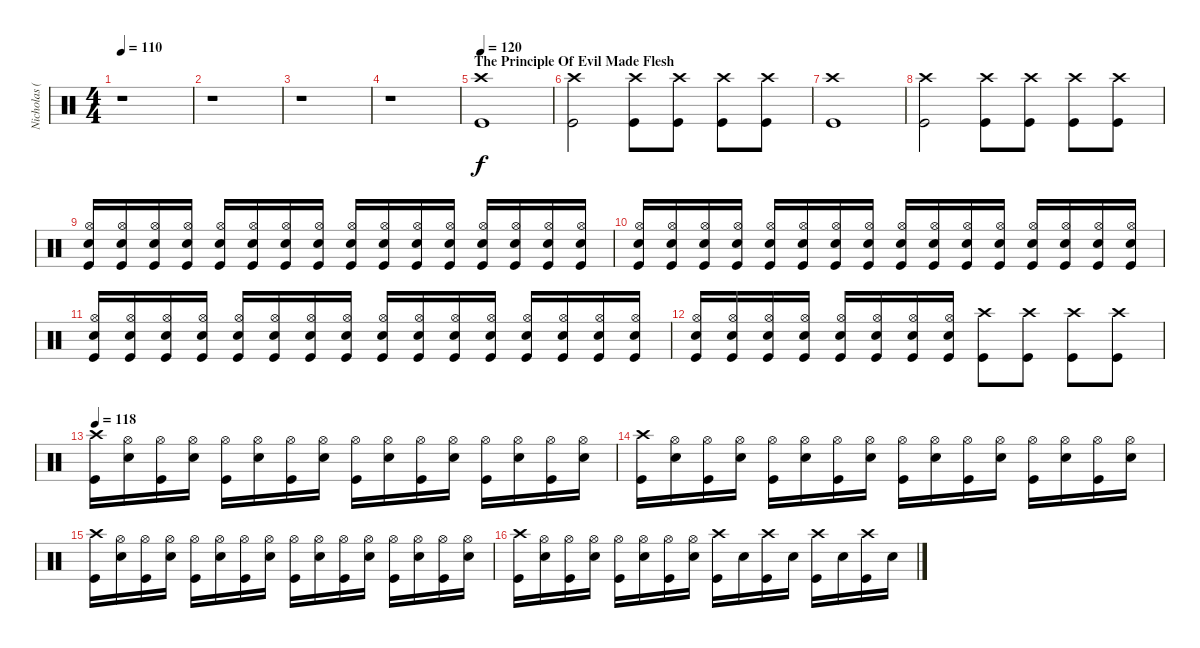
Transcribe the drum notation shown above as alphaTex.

\track ("Nicholas (Drums)" "Nicholas (") {instrument percussion}
\staff {score}
\articulation defaults
\ts (4 4)
\tempo 110
\clef neutral
\ks c
r.1{dy f} |
r.1 |
r.1 |
r.1 |
\section ("" "The Principle Of Evil Made Flesh")
\tempo 120
("Crash high (hit)" "Kick (hit)").1 |
("Crash high (hit)" "Kick (hit)").2 ("Crash high (hit)" "Kick (hit)").8 ("Crash high (hit)" "Kick (hit)").8 ("Crash high (hit)" "Kick (hit)").8 ("Crash high (hit)" "Kick (hit)").8 |
("Crash high (hit)" "Kick (hit)").1 |
("Crash high (hit)" "Kick (hit)").2 ("Crash high (hit)" "Kick (hit)").8 ("Crash high (hit)" "Kick (hit)").8 ("Crash high (hit)" "Kick (hit)").8 ("Crash high (hit)" "Kick (hit)").8 |
("Hi-Hat (open)" "Electric Snare (hit)" "Kick (hit)").16 ("Hi-Hat (open)" "Electric Snare (hit)" "Kick (hit)").16 ("Hi-Hat (open)" "Electric Snare (hit)" "Kick (hit)").16 ("Hi-Hat (open)" "Electric Snare (hit)" "Kick (hit)").16 ("Hi-Hat (open)" "Electric Snare (hit)" "Kick (hit)").16 ("Hi-Hat (open)" "Electric Snare (hit)" "Kick (hit)").16 ("Hi-Hat (open)" "Electric Snare (hit)" "Kick (hit)").16 ("Hi-Hat (open)" "Electric Snare (hit)" "Kick (hit)").16 ("Hi-Hat (open)" "Electric Snare (hit)" "Kick (hit)").16 ("Hi-Hat (open)" "Electric Snare (hit)" "Kick (hit)").16 ("Hi-Hat (open)" "Electric Snare (hit)" "Kick (hit)").16 ("Hi-Hat (open)" "Electric Snare (hit)" "Kick (hit)").16 ("Hi-Hat (open)" "Electric Snare (hit)" "Kick (hit)").16 ("Hi-Hat (open)" "Electric Snare (hit)" "Kick (hit)").16 ("Hi-Hat (open)" "Electric Snare (hit)" "Kick (hit)").16 ("Hi-Hat (open)" "Electric Snare (hit)" "Kick (hit)").16 |
("Hi-Hat (open)" "Electric Snare (hit)" "Kick (hit)").16 ("Hi-Hat (open)" "Electric Snare (hit)" "Kick (hit)").16 ("Hi-Hat (open)" "Electric Snare (hit)" "Kick (hit)").16 ("Hi-Hat (open)" "Electric Snare (hit)" "Kick (hit)").16 ("Hi-Hat (open)" "Electric Snare (hit)" "Kick (hit)").16 ("Hi-Hat (open)" "Electric Snare (hit)" "Kick (hit)").16 ("Hi-Hat (open)" "Electric Snare (hit)" "Kick (hit)").16 ("Hi-Hat (open)" "Electric Snare (hit)" "Kick (hit)").16 ("Hi-Hat (open)" "Electric Snare (hit)" "Kick (hit)").16 ("Hi-Hat (open)" "Electric Snare (hit)" "Kick (hit)").16 ("Hi-Hat (open)" "Electric Snare (hit)" "Kick (hit)").16 ("Hi-Hat (open)" "Electric Snare (hit)" "Kick (hit)").16 ("Hi-Hat (open)" "Electric Snare (hit)" "Kick (hit)").16 ("Hi-Hat (open)" "Electric Snare (hit)" "Kick (hit)").16 ("Hi-Hat (open)" "Electric Snare (hit)" "Kick (hit)").16 ("Hi-Hat (open)" "Electric Snare (hit)" "Kick (hit)").16 |
("Hi-Hat (open)" "Electric Snare (hit)" "Kick (hit)").16 ("Hi-Hat (open)" "Electric Snare (hit)" "Kick (hit)").16 ("Hi-Hat (open)" "Electric Snare (hit)" "Kick (hit)").16 ("Hi-Hat (open)" "Electric Snare (hit)" "Kick (hit)").16 ("Hi-Hat (open)" "Electric Snare (hit)" "Kick (hit)").16 ("Hi-Hat (open)" "Electric Snare (hit)" "Kick (hit)").16 ("Hi-Hat (open)" "Electric Snare (hit)" "Kick (hit)").16 ("Hi-Hat (open)" "Electric Snare (hit)" "Kick (hit)").16 ("Hi-Hat (open)" "Electric Snare (hit)" "Kick (hit)").16 ("Hi-Hat (open)" "Electric Snare (hit)" "Kick (hit)").16 ("Hi-Hat (open)" "Electric Snare (hit)" "Kick (hit)").16 ("Hi-Hat (open)" "Electric Snare (hit)" "Kick (hit)").16 ("Hi-Hat (open)" "Electric Snare (hit)" "Kick (hit)").16 ("Hi-Hat (open)" "Electric Snare (hit)" "Kick (hit)").16 ("Hi-Hat (open)" "Electric Snare (hit)" "Kick (hit)").16 ("Hi-Hat (open)" "Electric Snare (hit)" "Kick (hit)").16 |
("Hi-Hat (open)" "Electric Snare (hit)" "Kick (hit)").16 ("Hi-Hat (open)" "Electric Snare (hit)" "Kick (hit)").16 ("Hi-Hat (open)" "Electric Snare (hit)" "Kick (hit)").16 ("Hi-Hat (open)" "Electric Snare (hit)" "Kick (hit)").16 ("Hi-Hat (open)" "Electric Snare (hit)" "Kick (hit)").16 ("Hi-Hat (open)" "Electric Snare (hit)" "Kick (hit)").16 ("Hi-Hat (open)" "Electric Snare (hit)" "Kick (hit)").16 ("Hi-Hat (open)" "Electric Snare (hit)" "Kick (hit)").16 ("Crash high (hit)" "Kick (hit)").8 ("Crash high (hit)" "Kick (hit)").8 ("Crash high (hit)" "Kick (hit)").8 ("Crash high (hit)" "Kick (hit)").8 |
\tempo 118
("Crash high (hit)" "Kick (hit)").16 ("Hi-Hat (open)" "Electric Snare (hit)").16 ("Hi-Hat (open)" "Kick (hit)").16 ("Hi-Hat (open)" "Electric Snare (hit)").16 ("Hi-Hat (open)" "Kick (hit)").16 ("Hi-Hat (open)" "Electric Snare (hit)").16 ("Hi-Hat (open)" "Kick (hit)").16 ("Hi-Hat (open)" "Electric Snare (hit)").16 ("Hi-Hat (open)" "Kick (hit)").16 ("Hi-Hat (open)" "Electric Snare (hit)").16 ("Hi-Hat (open)" "Kick (hit)").16 ("Hi-Hat (open)" "Electric Snare (hit)").16 ("Hi-Hat (open)" "Kick (hit)").16 ("Hi-Hat (open)" "Electric Snare (hit)").16 ("Hi-Hat (open)" "Kick (hit)").16 ("Hi-Hat (open)" "Electric Snare (hit)").16 |
("Crash high (hit)" "Kick (hit)").16 ("Hi-Hat (open)" "Electric Snare (hit)").16 ("Hi-Hat (open)" "Kick (hit)").16 ("Hi-Hat (open)" "Electric Snare (hit)").16 ("Hi-Hat (open)" "Kick (hit)").16 ("Hi-Hat (open)" "Electric Snare (hit)").16 ("Hi-Hat (open)" "Kick (hit)").16 ("Hi-Hat (open)" "Electric Snare (hit)").16 ("Hi-Hat (open)" "Kick (hit)").16 ("Hi-Hat (open)" "Electric Snare (hit)").16 ("Hi-Hat (open)" "Kick (hit)").16 ("Hi-Hat (open)" "Electric Snare (hit)").16 ("Hi-Hat (open)" "Kick (hit)").16 ("Hi-Hat (open)" "Electric Snare (hit)").16 ("Hi-Hat (open)" "Kick (hit)").16 ("Hi-Hat (open)" "Electric Snare (hit)").16 |
("Crash high (hit)" "Kick (hit)").16 ("Hi-Hat (open)" "Electric Snare (hit)").16 ("Hi-Hat (open)" "Kick (hit)").16 ("Hi-Hat (open)" "Electric Snare (hit)").16 ("Hi-Hat (open)" "Kick (hit)").16 ("Hi-Hat (open)" "Electric Snare (hit)").16 ("Hi-Hat (open)" "Kick (hit)").16 ("Hi-Hat (open)" "Electric Snare (hit)").16 ("Hi-Hat (open)" "Kick (hit)").16 ("Hi-Hat (open)" "Electric Snare (hit)").16 ("Hi-Hat (open)" "Kick (hit)").16 ("Hi-Hat (open)" "Electric Snare (hit)").16 ("Hi-Hat (open)" "Kick (hit)").16 ("Hi-Hat (open)" "Electric Snare (hit)").16 ("Hi-Hat (open)" "Kick (hit)").16 ("Hi-Hat (open)" "Electric Snare (hit)").16 |
("Crash high (hit)" "Kick (hit)").16 ("Hi-Hat (open)" "Electric Snare (hit)").16 ("Hi-Hat (open)" "Kick (hit)").16 ("Hi-Hat (open)" "Electric Snare (hit)").16 ("Hi-Hat (open)" "Kick (hit)").16 ("Hi-Hat (open)" "Electric Snare (hit)").16 ("Hi-Hat (open)" "Kick (hit)").16 ("Hi-Hat (open)" "Electric Snare (hit)").16 ("Crash high (hit)" "Kick (hit)").16 "Electric Snare (hit)".16 ("Crash high (hit)" "Kick (hit)").16 "Electric Snare (hit)".16 ("Crash high (hit)" "Kick (hit)").16 "Electric Snare (hit)".16 ("Crash high (hit)" "Kick (hit)").16 "Electric Snare (hit)".16
